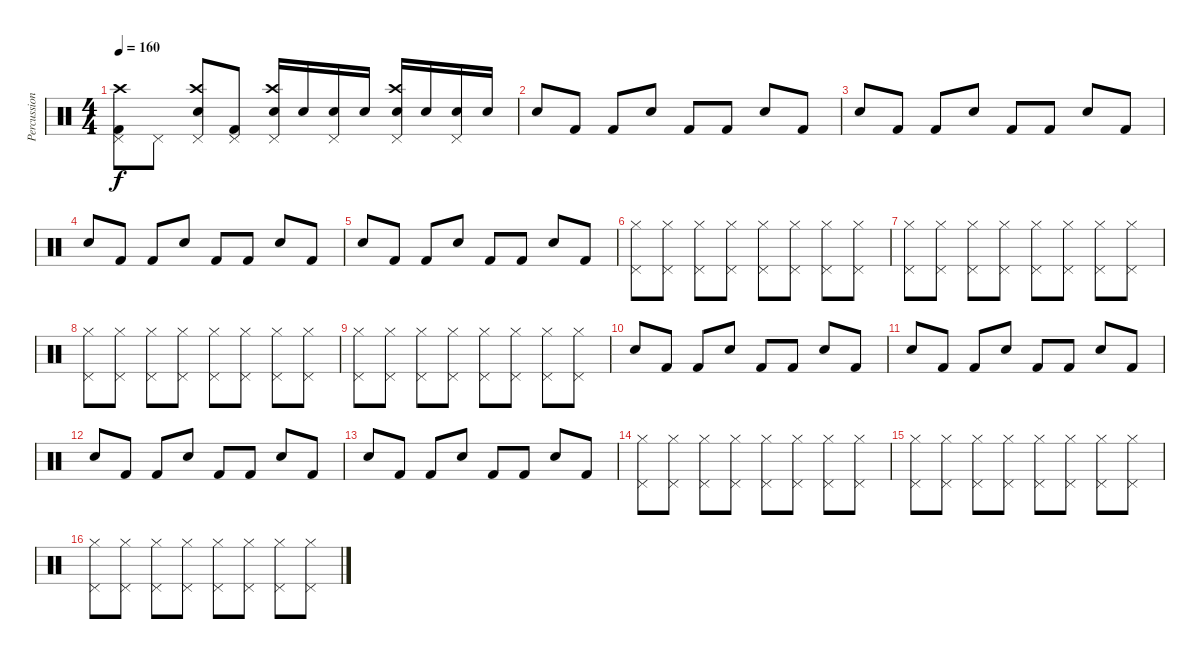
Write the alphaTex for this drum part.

\track ("Percussion" "Percussion") {instrument percussion}
\staff {score}
\articulation defaults
\ts (4 4)
\tempo 160
\clef neutral
\ks c
("Pedal Hi-Hat (hit)" "Kick (hit) 2" "Crash high (hit)").8{dy f} "Pedal Hi-Hat (hit)".8 ("Pedal Hi-Hat (hit)" "Electric Snare (hit)" "Crash high (hit)").8 ("Pedal Hi-Hat (hit)" "Kick (hit) 2").8 ("Pedal Hi-Hat (hit)" "Electric Snare (hit)" "Crash high (hit)").16 "Electric Snare (hit)".16 ("Pedal Hi-Hat (hit)" "Electric Snare (hit)").16 "Electric Snare (hit)".16 ("Pedal Hi-Hat (hit)" "Electric Snare (hit)" "Crash high (hit)").16 "Electric Snare (hit)".16 ("Pedal Hi-Hat (hit)" "Electric Snare (hit)").16 "Electric Snare (hit)".16 |
"Electric Snare (hit)".8 "Kick (hit) 2".8 "Kick (hit) 2".8 "Electric Snare (hit)".8 "Kick (hit) 2".8 "Kick (hit) 2".8 "Electric Snare (hit)".8 "Kick (hit) 2".8 |
"Electric Snare (hit)".8 "Kick (hit) 2".8 "Kick (hit) 2".8 "Electric Snare (hit)".8 "Kick (hit) 2".8 "Kick (hit) 2".8 "Electric Snare (hit)".8 "Kick (hit) 2".8 |
"Electric Snare (hit)".8 "Kick (hit) 2".8 "Kick (hit) 2".8 "Electric Snare (hit)".8 "Kick (hit) 2".8 "Kick (hit) 2".8 "Electric Snare (hit)".8 "Kick (hit) 2".8 |
"Electric Snare (hit)".8 "Kick (hit) 2".8 "Kick (hit) 2".8 "Electric Snare (hit)".8 "Kick (hit) 2".8 "Kick (hit) 2".8 "Electric Snare (hit)".8 "Kick (hit) 2".8 |
("Hi-Hat (closed)" "Pedal Hi-Hat (hit)").8 ("Hi-Hat (closed)" "Pedal Hi-Hat (hit)").8 ("Hi-Hat (closed)" "Pedal Hi-Hat (hit)").8 ("Hi-Hat (closed)" "Pedal Hi-Hat (hit)").8 ("Hi-Hat (closed)" "Pedal Hi-Hat (hit)").8 ("Hi-Hat (closed)" "Pedal Hi-Hat (hit)").8 ("Hi-Hat (closed)" "Pedal Hi-Hat (hit)").8 ("Hi-Hat (closed)" "Pedal Hi-Hat (hit)").8 |
("Hi-Hat (closed)" "Pedal Hi-Hat (hit)").8 ("Hi-Hat (closed)" "Pedal Hi-Hat (hit)").8 ("Hi-Hat (closed)" "Pedal Hi-Hat (hit)").8 ("Hi-Hat (closed)" "Pedal Hi-Hat (hit)").8 ("Hi-Hat (closed)" "Pedal Hi-Hat (hit)").8 ("Hi-Hat (closed)" "Pedal Hi-Hat (hit)").8 ("Hi-Hat (closed)" "Pedal Hi-Hat (hit)").8 ("Hi-Hat (closed)" "Pedal Hi-Hat (hit)").8 |
("Hi-Hat (closed)" "Pedal Hi-Hat (hit)").8 ("Hi-Hat (closed)" "Pedal Hi-Hat (hit)").8 ("Hi-Hat (closed)" "Pedal Hi-Hat (hit)").8 ("Hi-Hat (closed)" "Pedal Hi-Hat (hit)").8 ("Hi-Hat (closed)" "Pedal Hi-Hat (hit)").8 ("Hi-Hat (closed)" "Pedal Hi-Hat (hit)").8 ("Hi-Hat (closed)" "Pedal Hi-Hat (hit)").8 ("Hi-Hat (closed)" "Pedal Hi-Hat (hit)").8 |
("Hi-Hat (closed)" "Pedal Hi-Hat (hit)").8 ("Hi-Hat (closed)" "Pedal Hi-Hat (hit)").8 ("Hi-Hat (closed)" "Pedal Hi-Hat (hit)").8 ("Hi-Hat (closed)" "Pedal Hi-Hat (hit)").8 ("Hi-Hat (closed)" "Pedal Hi-Hat (hit)").8 ("Hi-Hat (closed)" "Pedal Hi-Hat (hit)").8 ("Hi-Hat (closed)" "Pedal Hi-Hat (hit)").8 ("Hi-Hat (closed)" "Pedal Hi-Hat (hit)").8 |
"Electric Snare (hit)".8 "Kick (hit) 2".8 "Kick (hit) 2".8 "Electric Snare (hit)".8 "Kick (hit) 2".8 "Kick (hit) 2".8 "Electric Snare (hit)".8 "Kick (hit) 2".8 |
"Electric Snare (hit)".8 "Kick (hit) 2".8 "Kick (hit) 2".8 "Electric Snare (hit)".8 "Kick (hit) 2".8 "Kick (hit) 2".8 "Electric Snare (hit)".8 "Kick (hit) 2".8 |
"Electric Snare (hit)".8 "Kick (hit) 2".8 "Kick (hit) 2".8 "Electric Snare (hit)".8 "Kick (hit) 2".8 "Kick (hit) 2".8 "Electric Snare (hit)".8 "Kick (hit) 2".8 |
"Electric Snare (hit)".8 "Kick (hit) 2".8 "Kick (hit) 2".8 "Electric Snare (hit)".8 "Kick (hit) 2".8 "Kick (hit) 2".8 "Electric Snare (hit)".8 "Kick (hit) 2".8 |
("Hi-Hat (closed)" "Pedal Hi-Hat (hit)").8 ("Hi-Hat (closed)" "Pedal Hi-Hat (hit)").8 ("Hi-Hat (closed)" "Pedal Hi-Hat (hit)").8 ("Hi-Hat (closed)" "Pedal Hi-Hat (hit)").8 ("Hi-Hat (closed)" "Pedal Hi-Hat (hit)").8 ("Hi-Hat (closed)" "Pedal Hi-Hat (hit)").8 ("Hi-Hat (closed)" "Pedal Hi-Hat (hit)").8 ("Hi-Hat (closed)" "Pedal Hi-Hat (hit)").8 |
("Hi-Hat (closed)" "Pedal Hi-Hat (hit)").8 ("Hi-Hat (closed)" "Pedal Hi-Hat (hit)").8 ("Hi-Hat (closed)" "Pedal Hi-Hat (hit)").8 ("Hi-Hat (closed)" "Pedal Hi-Hat (hit)").8 ("Hi-Hat (closed)" "Pedal Hi-Hat (hit)").8 ("Hi-Hat (closed)" "Pedal Hi-Hat (hit)").8 ("Hi-Hat (closed)" "Pedal Hi-Hat (hit)").8 ("Hi-Hat (closed)" "Pedal Hi-Hat (hit)").8 |
("Hi-Hat (closed)" "Pedal Hi-Hat (hit)").8 ("Hi-Hat (closed)" "Pedal Hi-Hat (hit)").8 ("Hi-Hat (closed)" "Pedal Hi-Hat (hit)").8 ("Hi-Hat (closed)" "Pedal Hi-Hat (hit)").8 ("Hi-Hat (closed)" "Pedal Hi-Hat (hit)").8 ("Hi-Hat (closed)" "Pedal Hi-Hat (hit)").8 ("Hi-Hat (closed)" "Pedal Hi-Hat (hit)").8 ("Hi-Hat (closed)" "Pedal Hi-Hat (hit)").8
